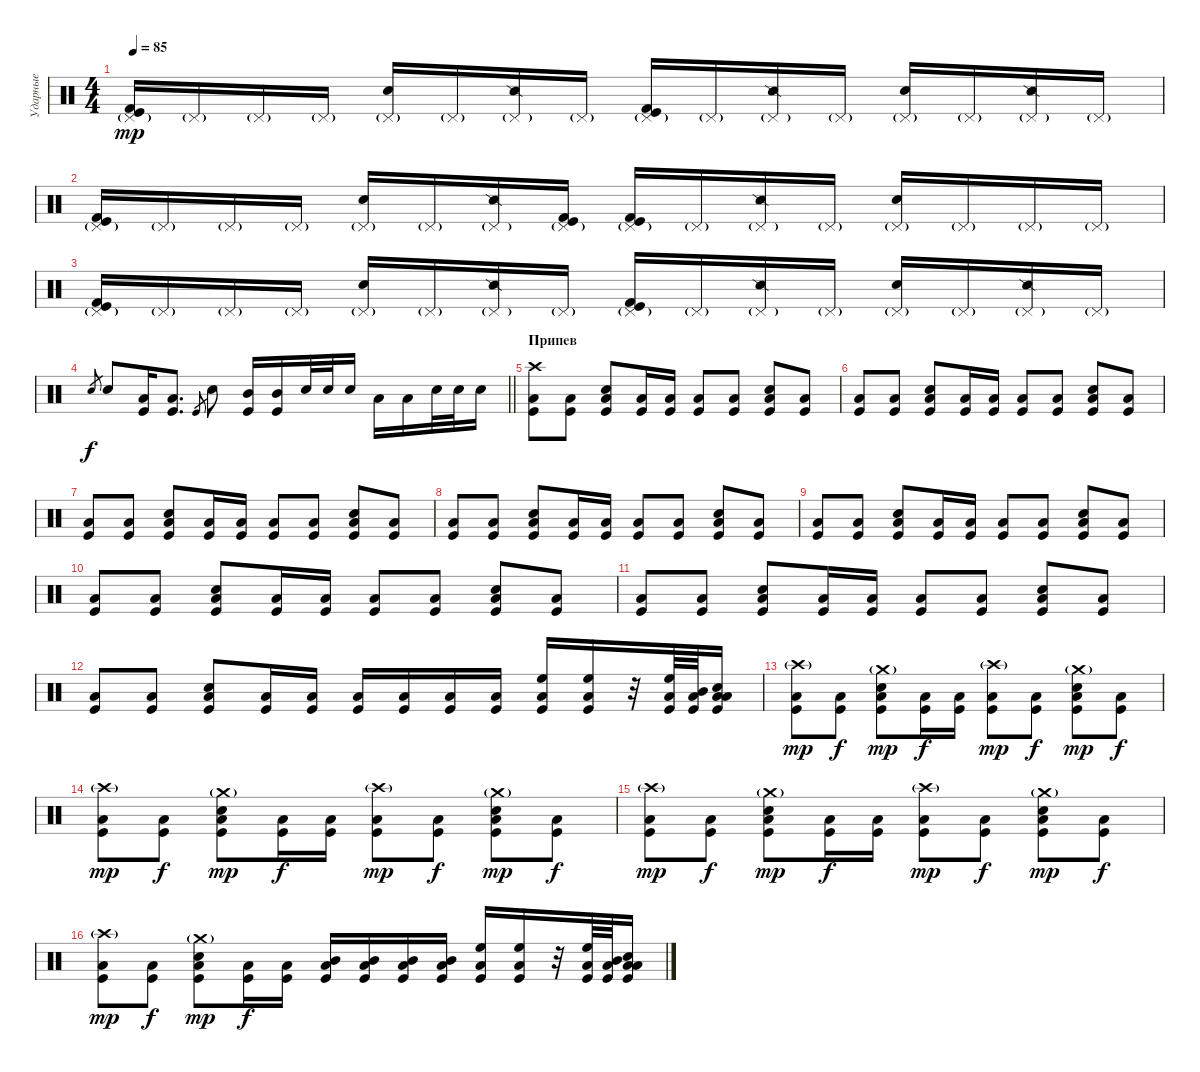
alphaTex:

\track ("Ударные" "Ударные") {instrument percussion}
\staff {score}
\articulation defaults
\ts (4 4)
\tempo 85
\clef neutral
\ks c
("Pedal Hi-Hat (hit)"{g} "Kick (hit) 2" "Kick (hit)").16{dy mp} "Pedal Hi-Hat (hit)"{g}.16 "Pedal Hi-Hat (hit)"{g}.16 "Pedal Hi-Hat (hit)"{g}.16 ("Pedal Hi-Hat (hit)"{g} "Electric Snare (hit)").16 "Pedal Hi-Hat (hit)"{g}.16 ("Pedal Hi-Hat (hit)"{g} "Snare (side stick) 2").16 "Pedal Hi-Hat (hit)"{g}.16 ("Pedal Hi-Hat (hit)"{g} "Kick (hit) 2" "Kick (hit)").16 "Pedal Hi-Hat (hit)"{g}.16 ("Pedal Hi-Hat (hit)"{g} "Snare (side stick) 2").16 "Pedal Hi-Hat (hit)"{g}.16 ("Pedal Hi-Hat (hit)"{g} "Electric Snare (hit)").16 "Pedal Hi-Hat (hit)"{g}.16 ("Pedal Hi-Hat (hit)"{g} "Snare (side stick) 2").16 "Pedal Hi-Hat (hit)"{g}.16 |
("Pedal Hi-Hat (hit)"{g} "Kick (hit) 2" "Kick (hit)").16 "Pedal Hi-Hat (hit)"{g}.16 "Pedal Hi-Hat (hit)"{g}.16 "Pedal Hi-Hat (hit)"{g}.16 ("Pedal Hi-Hat (hit)"{g} "Electric Snare (hit)").16 "Pedal Hi-Hat (hit)"{g}.16 ("Pedal Hi-Hat (hit)"{g} "Snare (side stick) 2").16 ("Pedal Hi-Hat (hit)"{g} "Kick (hit) 2" "Kick (hit)").16 ("Pedal Hi-Hat (hit)"{g} "Kick (hit) 2" "Kick (hit)").16 "Pedal Hi-Hat (hit)"{g}.16 ("Pedal Hi-Hat (hit)"{g} "Snare (side stick) 2").16 "Pedal Hi-Hat (hit)"{g}.16 ("Pedal Hi-Hat (hit)"{g} "Electric Snare (hit)").16 "Pedal Hi-Hat (hit)"{g}.16 "Pedal Hi-Hat (hit)"{g}.16 "Pedal Hi-Hat (hit)"{g}.16 |
("Pedal Hi-Hat (hit)"{g} "Kick (hit) 2" "Kick (hit)").16 "Pedal Hi-Hat (hit)"{g}.16 "Pedal Hi-Hat (hit)"{g}.16 "Pedal Hi-Hat (hit)"{g}.16 ("Pedal Hi-Hat (hit)"{g} "Electric Snare (hit)").16 "Pedal Hi-Hat (hit)"{g}.16 ("Pedal Hi-Hat (hit)"{g} "Snare (side stick) 2").16 "Pedal Hi-Hat (hit)"{g}.16 ("Pedal Hi-Hat (hit)"{g} "Kick (hit) 2" "Kick (hit)").16 "Pedal Hi-Hat (hit)"{g}.16 ("Pedal Hi-Hat (hit)"{g} "Snare (side stick) 2").16 "Pedal Hi-Hat (hit)"{g}.16 ("Pedal Hi-Hat (hit)"{g} "Electric Snare (hit)").16 "Pedal Hi-Hat (hit)"{g}.16 ("Pedal Hi-Hat (hit)"{g} "Snare (side stick) 2").16 "Pedal Hi-Hat (hit)"{g}.16 |
\barLineRight lightlight "Snare (hit) 2".8{gr dy f} "Electric Snare (hit)".8
("Low Tom (hit)" "Kick (hit)").16 ("Low Tom (hit)" "Kick (hit)").8{d} "Kick (hit)"{h}.8{gr} "Electric Snare (hit)".8 ("Mid Tom (hit)" "Kick (hit)").16 ("Mid Tom (hit)" "Kick (hit)").16 "Electric Snare (hit)".32 "Electric Snare (hit)".32 "Electric Snare (hit)".16 "Low Tom (hit)".16 "Low Tom (hit)".16 "Snare (hit) 2".32 "Snare (hit) 2".32 "Snare (hit) 2".16 |
\section ("" "Припев")
("Crash high (hit)" "Low Tom (hit)" "Kick (hit)").8 ("Low Tom (hit)" "Kick (hit)").8 ("Electric Snare (hit)" "Low Tom (hit)" "Kick (hit)").8 ("Low Tom (hit)" "Kick (hit)").16 ("Low Tom (hit)" "Kick (hit)").16 ("Low Tom (hit)" "Kick (hit)").8 ("Low Tom (hit)" "Kick (hit)").8 ("Electric Snare (hit)" "Low Tom (hit)" "Kick (hit)").8 ("Low Tom (hit)" "Kick (hit)").8 |
("Low Tom (hit)" "Kick (hit)").8 ("Low Tom (hit)" "Kick (hit)").8 ("Electric Snare (hit)" "Low Tom (hit)" "Kick (hit)").8 ("Low Tom (hit)" "Kick (hit)").16 ("Low Tom (hit)" "Kick (hit)").16 ("Low Tom (hit)" "Kick (hit)").8 ("Low Tom (hit)" "Kick (hit)").8 ("Electric Snare (hit)" "Low Tom (hit)" "Kick (hit)").8 ("Low Tom (hit)" "Kick (hit)").8 |
("Low Tom (hit)" "Kick (hit)").8 ("Low Tom (hit)" "Kick (hit)").8 ("Electric Snare (hit)" "Low Tom (hit)" "Kick (hit)").8 ("Low Tom (hit)" "Kick (hit)").16 ("Low Tom (hit)" "Kick (hit)").16 ("Low Tom (hit)" "Kick (hit)").8 ("Low Tom (hit)" "Kick (hit)").8 ("Electric Snare (hit)" "Low Tom (hit)" "Kick (hit)").8 ("Low Tom (hit)" "Kick (hit)").8 |
("Low Tom (hit)" "Kick (hit)").8 ("Low Tom (hit)" "Kick (hit)").8 ("Electric Snare (hit)" "Low Tom (hit)" "Kick (hit)").8 ("Low Tom (hit)" "Kick (hit)").16 ("Low Tom (hit)" "Kick (hit)").16 ("Low Tom (hit)" "Kick (hit)").8 ("Low Tom (hit)" "Kick (hit)").8 ("Electric Snare (hit)" "Low Tom (hit)" "Kick (hit)").8 ("Low Tom (hit)" "Kick (hit)").8 |
("Low Tom (hit)" "Kick (hit)").8 ("Low Tom (hit)" "Kick (hit)").8 ("Electric Snare (hit)" "Low Tom (hit)" "Kick (hit)").8 ("Low Tom (hit)" "Kick (hit)").16 ("Low Tom (hit)" "Kick (hit)").16 ("Low Tom (hit)" "Kick (hit)").8 ("Low Tom (hit)" "Kick (hit)").8 ("Electric Snare (hit)" "Low Tom (hit)" "Kick (hit)").8 ("Low Tom (hit)" "Kick (hit)").8 |
("Low Tom (hit)" "Kick (hit)").8 ("Low Tom (hit)" "Kick (hit)").8 ("Electric Snare (hit)" "Low Tom (hit)" "Kick (hit)").8 ("Low Tom (hit)" "Kick (hit)").16 ("Low Tom (hit)" "Kick (hit)").16 ("Low Tom (hit)" "Kick (hit)").8 ("Low Tom (hit)" "Kick (hit)").8 ("Electric Snare (hit)" "Low Tom (hit)" "Kick (hit)").8 ("Low Tom (hit)" "Kick (hit)").8 |
("Low Tom (hit)" "Kick (hit)").8 ("Low Tom (hit)" "Kick (hit)").8 ("Electric Snare (hit)" "Low Tom (hit)" "Kick (hit)").8 ("Low Tom (hit)" "Kick (hit)").16 ("Low Tom (hit)" "Kick (hit)").16 ("Low Tom (hit)" "Kick (hit)").8 ("Low Tom (hit)" "Kick (hit)").8 ("Electric Snare (hit)" "Low Tom (hit)" "Kick (hit)").8 ("Low Tom (hit)" "Kick (hit)").8 |
("Low Tom (hit)" "Kick (hit)").8 ("Low Tom (hit)" "Kick (hit)").8 ("Electric Snare (hit)" "Low Tom (hit)" "Kick (hit)").8 ("Low Tom (hit)" "Kick (hit)").16 ("Low Tom (hit)" "Kick (hit)").16 ("Low Tom (hit)" "Kick (hit)").16 ("Low Tom (hit)" "Kick (hit)").16 ("Low Tom (hit)" "Kick (hit)").16 ("Low Tom (hit)" "Kick (hit)").16 ("High Floor Tom (hit)" "Low Tom (hit)" "Kick (hit)").16 ("High Floor Tom (hit)" "Low Tom (hit)" "Kick (hit)").16 r.32 ("High Floor Tom (hit)" "Low Tom (hit)" "Kick (hit)").64 ("Mid Tom (hit)" "Low Tom (hit)" "Kick (hit)").64 ("Electric Snare (hit)" "Low Tom (hit)" "Low Tom (hit)" "Kick (hit)").16 |
("Crash high (hit)"{g} "Low Tom (hit)" "Kick (hit)").8{dy mp} ("Low Tom (hit)" "Kick (hit)").8{dy f} ("Crash medium (hit)"{g} "Electric Snare (hit)" "Low Tom (hit)" "Kick (hit)").8{dy mp} ("Low Tom (hit)" "Kick (hit)").16{dy f} ("Low Tom (hit)" "Kick (hit)").16 ("Crash high (hit)"{g} "Low Tom (hit)" "Kick (hit)").8{dy mp} ("Low Tom (hit)" "Kick (hit)").8{dy f} ("Crash medium (hit)"{g} "Electric Snare (hit)" "Low Tom (hit)" "Kick (hit)").8{dy mp} ("Low Tom (hit)" "Kick (hit)").8{dy f} |
("Crash high (hit)"{g} "Low Tom (hit)" "Kick (hit)").8{dy mp} ("Low Tom (hit)" "Kick (hit)").8{dy f} ("Crash medium (hit)"{g} "Electric Snare (hit)" "Low Tom (hit)" "Kick (hit)").8{dy mp} ("Low Tom (hit)" "Kick (hit)").16{dy f} ("Low Tom (hit)" "Kick (hit)").16 ("Crash high (hit)"{g} "Low Tom (hit)" "Kick (hit)").8{dy mp} ("Low Tom (hit)" "Kick (hit)").8{dy f} ("Crash medium (hit)"{g} "Electric Snare (hit)" "Low Tom (hit)" "Kick (hit)").8{dy mp} ("Low Tom (hit)" "Kick (hit)").8{dy f} |
("Crash high (hit)"{g} "Low Tom (hit)" "Kick (hit)").8{dy mp} ("Low Tom (hit)" "Kick (hit)").8{dy f} ("Crash medium (hit)"{g} "Electric Snare (hit)" "Low Tom (hit)" "Kick (hit)").8{dy mp} ("Low Tom (hit)" "Kick (hit)").16{dy f} ("Low Tom (hit)" "Kick (hit)").16 ("Crash high (hit)"{g} "Low Tom (hit)" "Kick (hit)").8{dy mp} ("Low Tom (hit)" "Kick (hit)").8{dy f} ("Crash medium (hit)"{g} "Electric Snare (hit)" "Low Tom (hit)" "Kick (hit)").8{dy mp} ("Low Tom (hit)" "Kick (hit)").8{dy f} |
("Crash high (hit)"{g} "Low Tom (hit)" "Kick (hit)").8{dy mp} ("Low Tom (hit)" "Kick (hit)").8{dy f} ("Crash medium (hit)"{g} "Electric Snare (hit)" "Low Tom (hit)" "Kick (hit)").8{dy mp} ("Low Tom (hit)" "Kick (hit)").16{dy f} ("Low Tom (hit)" "Kick (hit)").16 ("Mid Tom (hit)" "Low Tom (hit)" "Kick (hit)").16 ("Mid Tom (hit)" "Low Tom (hit)" "Kick (hit)").16 ("Mid Tom (hit)" "Low Tom (hit)" "Kick (hit)").16 ("Mid Tom (hit)" "Low Tom (hit)" "Kick (hit)").16 ("High Floor Tom (hit)" "Low Tom (hit)" "Kick (hit)").16 ("High Floor Tom (hit)" "Low Tom (hit)" "Kick (hit)").16 r.32 ("High Floor Tom (hit)" "Low Tom (hit)" "Kick (hit)").64 ("Mid Tom (hit)" "Low Tom (hit)" "Kick (hit)").64 ("Electric Snare (hit)" "Low Tom (hit)" "Low Tom (hit)" "Kick (hit)").16
